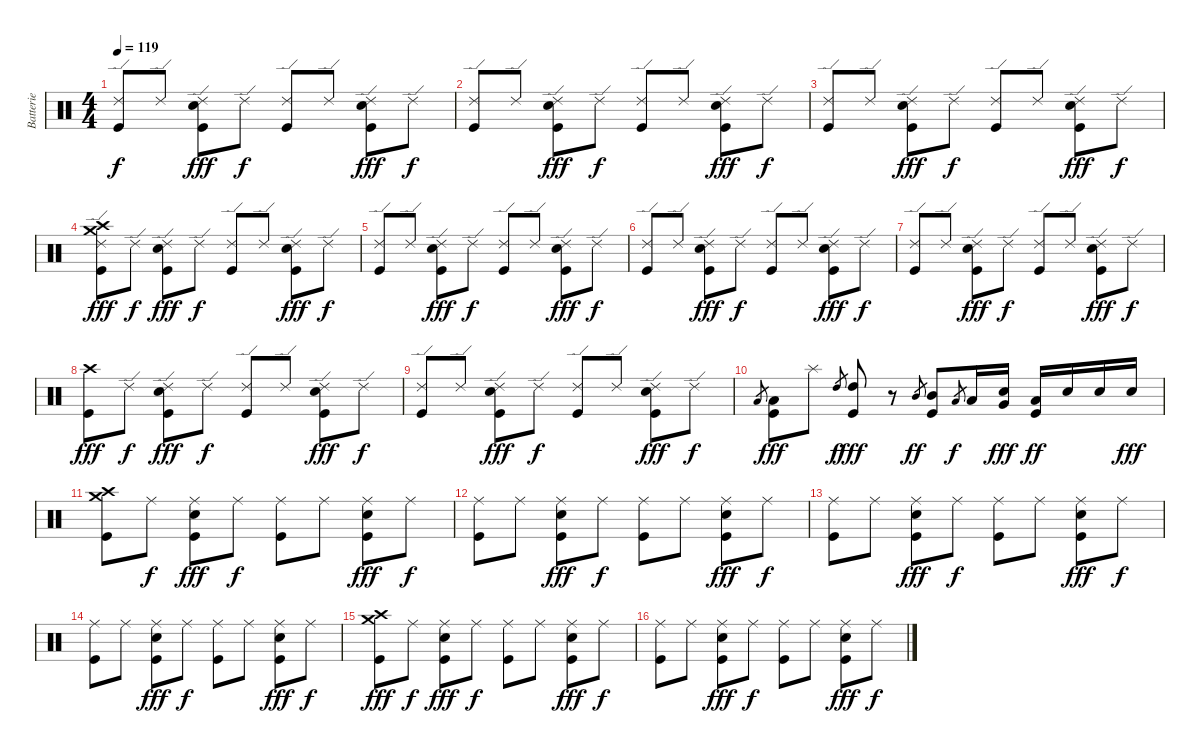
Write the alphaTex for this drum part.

\track ("Batterie" "Batterie") {instrument percussion}
\staff {score}
\articulation defaults
\ts (4 4)
\tempo 119
\clef neutral
\ks c
("Ride (edge) 2" "Kick (hit)").8{dy f} "Ride (edge) 2".8 ("Ride (edge) 2" "Kick (hit)" "Electric Snare (hit)").8{dy fff} "Ride (edge) 2".8{dy f} ("Ride (edge) 2" "Kick (hit)").8 "Ride (edge) 2".8 ("Ride (edge) 2" "Kick (hit)" "Electric Snare (hit)").8{dy fff} "Ride (edge) 2".8{dy f} |
("Ride (edge) 2" "Kick (hit)").8 "Ride (edge) 2".8 ("Ride (edge) 2" "Kick (hit)" "Electric Snare (hit)").8{dy fff} "Ride (edge) 2".8{dy f} ("Ride (edge) 2" "Kick (hit)").8 "Ride (edge) 2".8 ("Ride (edge) 2" "Kick (hit)" "Electric Snare (hit)").8{dy fff} "Ride (edge) 2".8{dy f} |
("Ride (edge) 2" "Kick (hit)").8 "Ride (edge) 2".8 ("Ride (edge) 2" "Kick (hit)" "Electric Snare (hit)").8{dy fff} "Ride (edge) 2".8{dy f} ("Ride (edge) 2" "Kick (hit)").8 "Ride (edge) 2".8 ("Ride (edge) 2" "Kick (hit)" "Electric Snare (hit)").8{dy fff} "Ride (edge) 2".8{dy f} |
("Ride (edge) 2" "Kick (hit)" "Crash medium (hit)" "Crash high (hit)").8{dy fff} "Ride (edge) 2".8{dy f} ("Ride (edge) 2" "Kick (hit)" "Electric Snare (hit)").8{dy fff} "Ride (edge) 2".8{dy f} ("Ride (edge) 2" "Kick (hit)").8 "Ride (edge) 2".8 ("Ride (edge) 2" "Kick (hit)" "Electric Snare (hit)").8{dy fff} "Ride (edge) 2".8{dy f} |
("Ride (edge) 2" "Kick (hit)").8 "Ride (edge) 2".8 ("Ride (edge) 2" "Kick (hit)" "Electric Snare (hit)").8{dy fff} "Ride (edge) 2".8{dy f} ("Ride (edge) 2" "Kick (hit)").8 "Ride (edge) 2".8 ("Ride (edge) 2" "Kick (hit)" "Electric Snare (hit)").8{dy fff} "Ride (edge) 2".8{dy f} |
("Ride (edge) 2" "Kick (hit)").8 "Ride (edge) 2".8 ("Ride (edge) 2" "Kick (hit)" "Electric Snare (hit)").8{dy fff} "Ride (edge) 2".8{dy f} ("Ride (edge) 2" "Kick (hit)").8 "Ride (edge) 2".8 ("Ride (edge) 2" "Kick (hit)" "Electric Snare (hit)").8{dy fff} "Ride (edge) 2".8{dy f} |
("Ride (edge) 2" "Kick (hit)").8 "Ride (edge) 2".8 ("Ride (edge) 2" "Kick (hit)" "Electric Snare (hit)").8{dy fff} "Ride (edge) 2".8{dy f} ("Ride (edge) 2" "Kick (hit)").8 "Ride (edge) 2".8 ("Ride (edge) 2" "Kick (hit)" "Electric Snare (hit)").8{dy fff} "Ride (edge) 2".8{dy f} |
("Kick (hit)" "Crash high (hit)").8{dy fff} "Ride (edge) 2".8{dy f} ("Ride (edge) 2" "Kick (hit)" "Electric Snare (hit)").8{dy fff} "Ride (edge) 2".8{dy f} ("Ride (edge) 2" "Kick (hit)").8 "Ride (edge) 2".8 ("Ride (edge) 2" "Kick (hit)" "Electric Snare (hit)").8{dy fff} "Ride (edge) 2".8{dy f} |
("Ride (edge) 2" "Kick (hit)").8 "Ride (edge) 2".8 ("Ride (edge) 2" "Kick (hit)" "Electric Snare (hit)").8{dy fff} "Ride (edge) 2".8{dy f} ("Ride (edge) 2" "Kick (hit)").8 "Ride (edge) 2".8 ("Ride (edge) 2" "Kick (hit)" "Electric Snare (hit)").8{dy fff} "Ride (edge) 2".8{dy f} |
"Low Tom (hit)".8{gr} ("Low Tom (hit)" "Kick (hit)").8{dy fff} "Splash (hit)".8 "High Tom (hit)".8{gr dy f} ("High Tom (hit)" "Kick (hit)").8{dy fff} r.8 "Mid Tom (hit)".8{gr dy ff} ("Mid Tom (hit)" "Kick (hit)").8 "Low Tom (hit)".8{gr dy f} "Low Tom (hit)".16 ("Very Low Tom (hit)" "Electric Snare (hit)").16{dy fff} ("Low Floor Tom (hit)" "Kick (hit)").16{dy ff} "Electric Snare (hit)".16 "Electric Snare (hit)".16 "Electric Snare (hit)".16{dy fff} |
("Kick (hit)" "Crash medium (hit)" "Crash high (hit)").8 "Ride (middle)".8{dy f} ("Ride (middle)" "Kick (hit)" "Electric Snare (hit)").8{dy fff} "Ride (middle)".8{dy f} ("Ride (middle)" "Kick (hit)").8 "Ride (middle)".8 ("Ride (middle)" "Kick (hit)" "Electric Snare (hit)").8{dy fff} "Ride (middle)".8{dy f} |
("Ride (middle)" "Kick (hit)").8 "Ride (middle)".8 ("Ride (middle)" "Kick (hit)" "Electric Snare (hit)").8{dy fff} "Ride (middle)".8{dy f} ("Ride (middle)" "Kick (hit)").8 "Ride (middle)".8 ("Ride (middle)" "Kick (hit)" "Electric Snare (hit)").8{dy fff} "Ride (middle)".8{dy f} |
("Ride (middle)" "Kick (hit)").8 "Ride (middle)".8 ("Ride (middle)" "Kick (hit)" "Electric Snare (hit)").8{dy fff} "Ride (middle)".8{dy f} ("Ride (middle)" "Kick (hit)").8 "Ride (middle)".8 ("Ride (middle)" "Kick (hit)" "Electric Snare (hit)").8{dy fff} "Ride (middle)".8{dy f} |
("Ride (middle)" "Kick (hit)").8 "Ride (middle)".8 ("Ride (middle)" "Kick (hit)" "Electric Snare (hit)").8{dy fff} "Ride (middle)".8{dy f} ("Ride (middle)" "Kick (hit)").8 "Ride (middle)".8 ("Ride (middle)" "Kick (hit)" "Electric Snare (hit)").8{dy fff} "Ride (middle)".8{dy f} |
("Kick (hit)" "Crash medium (hit)" "Crash high (hit)").8{dy fff} "Ride (middle)".8{dy f} ("Ride (middle)" "Kick (hit)" "Electric Snare (hit)").8{dy fff} "Ride (middle)".8{dy f} ("Ride (middle)" "Kick (hit)").8 "Ride (middle)".8 ("Ride (middle)" "Kick (hit)" "Electric Snare (hit)").8{dy fff} "Ride (middle)".8{dy f} |
("Ride (middle)" "Kick (hit)").8 "Ride (middle)".8 ("Ride (middle)" "Kick (hit)" "Electric Snare (hit)").8{dy fff} "Ride (middle)".8{dy f} ("Ride (middle)" "Kick (hit)").8 "Ride (middle)".8 ("Ride (middle)" "Kick (hit)" "Electric Snare (hit)").8{dy fff} "Ride (middle)".8{dy f}
